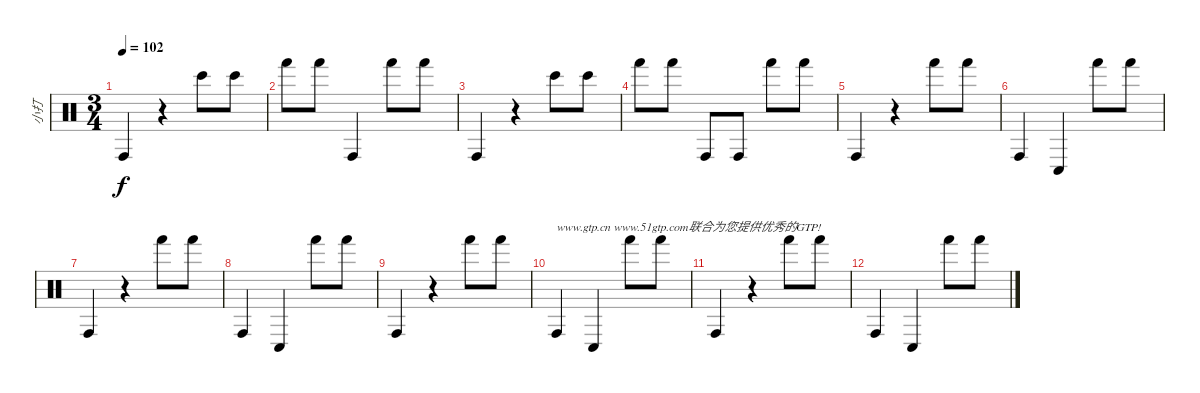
\track ("小打" "小打") {instrument percussion}
\staff {score}
\articulation defaults
\ts (3 4)
\tempo 102
\clef neutral
\ks c "Conga high (hit)".4{dy f}
r.4 "Bongo High (hit)".8 "Bongo High (hit)".8 |
"Hand (hit)".8 "Hand (hit)".8 "Conga high (hit)".4 "Hand (hit)".8 "Hand (hit)".8 |
"Conga high (hit)".4 r.4 "Bongo High (hit)".8 "Bongo High (hit)".8 |
"Hand (hit)".8 "Hand (hit)".8 "Conga high (hit)".8 "Conga high (hit)".8 "Hand (hit)".8 "Hand (hit)".8 |
"Conga high (hit)".4 r.4 "Hand (hit)".8 "Hand (hit)".8 |
"Conga high (hit)".4 "Conga low (hit)".4 "Hand (hit)".8 "Hand (hit)".8 |
"Conga high (hit)".4 r.4 "Hand (hit)".8 "Hand (hit)".8 |
"Conga high (hit)".4 "Conga low (hit)".4 "Hand (hit)".8 "Hand (hit)".8 |
"Conga high (hit)".4 r.4 "Hand (hit)".8 "Hand (hit)".8 |
"Conga high (hit)".4{txt "www.gtp.cn www.51gtp.com联合为您提供优秀的GTP!"} "Conga low (hit)".4 "Hand (hit)".8 "Hand (hit)".8 |
"Conga high (hit)".4 r.4 "Hand (hit)".8 "Hand (hit)".8 |
"Conga high (hit)".4 "Conga low (hit)".4 "Hand (hit)".8 "Hand (hit)".8
